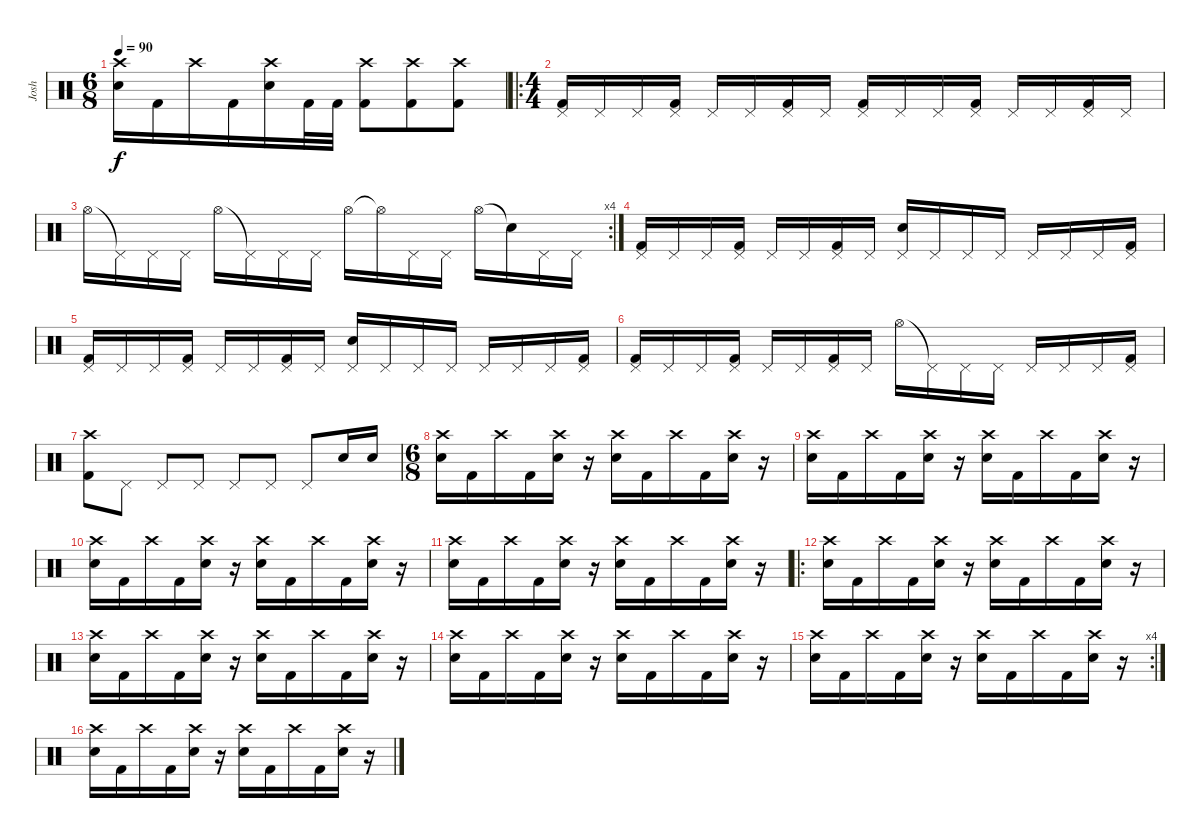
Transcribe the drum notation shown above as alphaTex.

\track ("Josh" "Josh") {instrument percussion}
\staff {score}
\articulation defaults
\ts (6 8)
\tempo 90
\clef neutral
\ks c
("Crash high (hit)" "Electric Snare (hit)").16{dy f} "Kick (hit) 2".16 "Crash high (hit)".16 "Kick (hit) 2".16 ("Crash high (hit)" "Electric Snare (hit)").16 "Kick (hit) 2".32 "Kick (hit) 2".32 ("Crash high (hit)" "Kick (hit) 2").8 ("Crash high (hit)" "Kick (hit) 2").8 ("Crash high (hit)" "Kick (hit) 2").8 |
\ro
\ts (4 4)
("Pedal Hi-Hat (hit)" "Kick (hit) 2").16 "Pedal Hi-Hat (hit)".16 "Pedal Hi-Hat (hit)".16 ("Pedal Hi-Hat (hit)" "Kick (hit) 2").16 "Pedal Hi-Hat (hit)".16 "Pedal Hi-Hat (hit)".16 ("Pedal Hi-Hat (hit)" "Kick (hit) 2").16 "Pedal Hi-Hat (hit)".16 ("Pedal Hi-Hat (hit)" "Kick (hit) 2").16 "Pedal Hi-Hat (hit)".16 "Pedal Hi-Hat (hit)".16 ("Pedal Hi-Hat (hit)" "Kick (hit) 2").16 "Pedal Hi-Hat (hit)".16 "Pedal Hi-Hat (hit)".16 ("Pedal Hi-Hat (hit)" "Kick (hit) 2").16 "Pedal Hi-Hat (hit)".16 |
\rc 4 "Hi-Hat (open)".16 "Pedal Hi-Hat (hit)"{t}.16 "Pedal Hi-Hat (hit)".16 "Pedal Hi-Hat (hit)".16 "Hi-Hat (open)".16 "Pedal Hi-Hat (hit)"{t}.16 "Pedal Hi-Hat (hit)".16 "Pedal Hi-Hat (hit)".16 "Hi-Hat (open)".16 "Hi-Hat (open)"{t}.16 "Pedal Hi-Hat (hit)".16 "Pedal Hi-Hat (hit)".16 "Hi-Hat (open)".16 "Snare (hit)"{t}.16 "Pedal Hi-Hat (hit)".16 "Pedal Hi-Hat (hit)".16
|
("Pedal Hi-Hat (hit)" "Kick (hit) 2").16 "Pedal Hi-Hat (hit)".16 "Pedal Hi-Hat (hit)".16 ("Pedal Hi-Hat (hit)" "Kick (hit) 2").16 "Pedal Hi-Hat (hit)".16 "Pedal Hi-Hat (hit)".16 ("Pedal Hi-Hat (hit)" "Kick (hit) 2").16 "Pedal Hi-Hat (hit)".16 ("Pedal Hi-Hat (hit)" "Electric Snare (hit)").16 "Pedal Hi-Hat (hit)".16 "Pedal Hi-Hat (hit)".16 "Pedal Hi-Hat (hit)".16 "Pedal Hi-Hat (hit)".16 "Pedal Hi-Hat (hit)".16 "Pedal Hi-Hat (hit)".16 ("Pedal Hi-Hat (hit)" "Kick (hit) 2").16 |
("Pedal Hi-Hat (hit)" "Kick (hit) 2").16 "Pedal Hi-Hat (hit)".16 "Pedal Hi-Hat (hit)".16 ("Pedal Hi-Hat (hit)" "Kick (hit) 2").16 "Pedal Hi-Hat (hit)".16 "Pedal Hi-Hat (hit)".16 ("Pedal Hi-Hat (hit)" "Kick (hit) 2").16 "Pedal Hi-Hat (hit)".16 ("Pedal Hi-Hat (hit)" "Electric Snare (hit)").16 "Pedal Hi-Hat (hit)".16 "Pedal Hi-Hat (hit)".16 "Pedal Hi-Hat (hit)".16 "Pedal Hi-Hat (hit)".16 "Pedal Hi-Hat (hit)".16 "Pedal Hi-Hat (hit)".16 ("Pedal Hi-Hat (hit)" "Kick (hit) 2").16 |
("Pedal Hi-Hat (hit)" "Kick (hit) 2").16 "Pedal Hi-Hat (hit)".16 "Pedal Hi-Hat (hit)".16 ("Pedal Hi-Hat (hit)" "Kick (hit) 2").16 "Pedal Hi-Hat (hit)".16 "Pedal Hi-Hat (hit)".16 ("Pedal Hi-Hat (hit)" "Kick (hit) 2").16 "Pedal Hi-Hat (hit)".16 "Hi-Hat (open)".16 "Pedal Hi-Hat (hit)"{t}.16 "Pedal Hi-Hat (hit)".16 "Pedal Hi-Hat (hit)".16 "Pedal Hi-Hat (hit)".16 "Pedal Hi-Hat (hit)".16 "Pedal Hi-Hat (hit)".16 ("Pedal Hi-Hat (hit)" "Kick (hit) 2").16 |
("Crash high (hit)" "Kick (hit) 2").8 "Pedal Hi-Hat (hit)".8 "Pedal Hi-Hat (hit)".8 "Pedal Hi-Hat (hit)".8 "Pedal Hi-Hat (hit)".8 "Pedal Hi-Hat (hit)".8 "Pedal Hi-Hat (hit)".8 "Electric Snare (hit)".16{volume 10} "Electric Snare (hit)".16 |
\ts (6 8)
("Crash high (hit)" "Electric Snare (hit)").16{volume 8} "Kick (hit) 2".16 "Crash high (hit)".16 "Kick (hit) 2".16 ("Crash high (hit)" "Electric Snare (hit)").16 r.16 ("Crash high (hit)" "Electric Snare (hit)").16 "Kick (hit) 2".16 "Crash high (hit)".16 "Kick (hit) 2".16 ("Crash high (hit)" "Electric Snare (hit)").16 r.16 |
("Crash high (hit)" "Electric Snare (hit)").16 "Kick (hit) 2".16 "Crash high (hit)".16 "Kick (hit) 2".16 ("Crash high (hit)" "Electric Snare (hit)").16 r.16 ("Crash high (hit)" "Electric Snare (hit)").16 "Kick (hit) 2".16 "Crash high (hit)".16 "Kick (hit) 2".16 ("Crash high (hit)" "Electric Snare (hit)").16 r.16 |
("Crash high (hit)" "Electric Snare (hit)").16{volume 8} "Kick (hit) 2".16 "Crash high (hit)".16 "Kick (hit) 2".16 ("Crash high (hit)" "Electric Snare (hit)").16 r.16 ("Crash high (hit)" "Electric Snare (hit)").16 "Kick (hit) 2".16 "Crash high (hit)".16 "Kick (hit) 2".16 ("Crash high (hit)" "Electric Snare (hit)").16 r.16 |
("Crash high (hit)" "Electric Snare (hit)").16 "Kick (hit) 2".16 "Crash high (hit)".16 "Kick (hit) 2".16 ("Crash high (hit)" "Electric Snare (hit)").16 r.16 ("Crash high (hit)" "Electric Snare (hit)").16 "Kick (hit) 2".16 "Crash high (hit)".16 "Kick (hit) 2".16 ("Crash high (hit)" "Electric Snare (hit)").16 r.16 |
\ro
("Crash high (hit)" "Electric Snare (hit)").16{volume 8} "Kick (hit) 2".16 "Crash high (hit)".16 "Kick (hit) 2".16 ("Crash high (hit)" "Electric Snare (hit)").16 r.16 ("Crash high (hit)" "Electric Snare (hit)").16 "Kick (hit) 2".16 "Crash high (hit)".16 "Kick (hit) 2".16 ("Crash high (hit)" "Electric Snare (hit)").16 r.16 |
("Crash high (hit)" "Electric Snare (hit)").16 "Kick (hit) 2".16 "Crash high (hit)".16 "Kick (hit) 2".16 ("Crash high (hit)" "Electric Snare (hit)").16 r.16 ("Crash high (hit)" "Electric Snare (hit)").16 "Kick (hit) 2".16 "Crash high (hit)".16 "Kick (hit) 2".16 ("Crash high (hit)" "Electric Snare (hit)").16 r.16 |
("Crash high (hit)" "Electric Snare (hit)").16{volume 8} "Kick (hit) 2".16 "Crash high (hit)".16 "Kick (hit) 2".16 ("Crash high (hit)" "Electric Snare (hit)").16 r.16 ("Crash high (hit)" "Electric Snare (hit)").16 "Kick (hit) 2".16 "Crash high (hit)".16 "Kick (hit) 2".16 ("Crash high (hit)" "Electric Snare (hit)").16 r.16 |
\rc 4
("Crash high (hit)" "Electric Snare (hit)").16 "Kick (hit) 2".16 "Crash high (hit)".16 "Kick (hit) 2".16 ("Crash high (hit)" "Electric Snare (hit)").16 r.16 ("Crash high (hit)" "Electric Snare (hit)").16 "Kick (hit) 2".16 "Crash high (hit)".16 "Kick (hit) 2".16 ("Crash high (hit)" "Electric Snare (hit)").16 r.16 |
("Crash high (hit)" "Electric Snare (hit)").16{volume 8} "Kick (hit) 2".16 "Crash high (hit)".16 "Kick (hit) 2".16 ("Crash high (hit)" "Electric Snare (hit)").16 r.16 ("Crash high (hit)" "Electric Snare (hit)").16 "Kick (hit) 2".16 "Crash high (hit)".16 "Kick (hit) 2".16 ("Crash high (hit)" "Electric Snare (hit)").16 r.16
